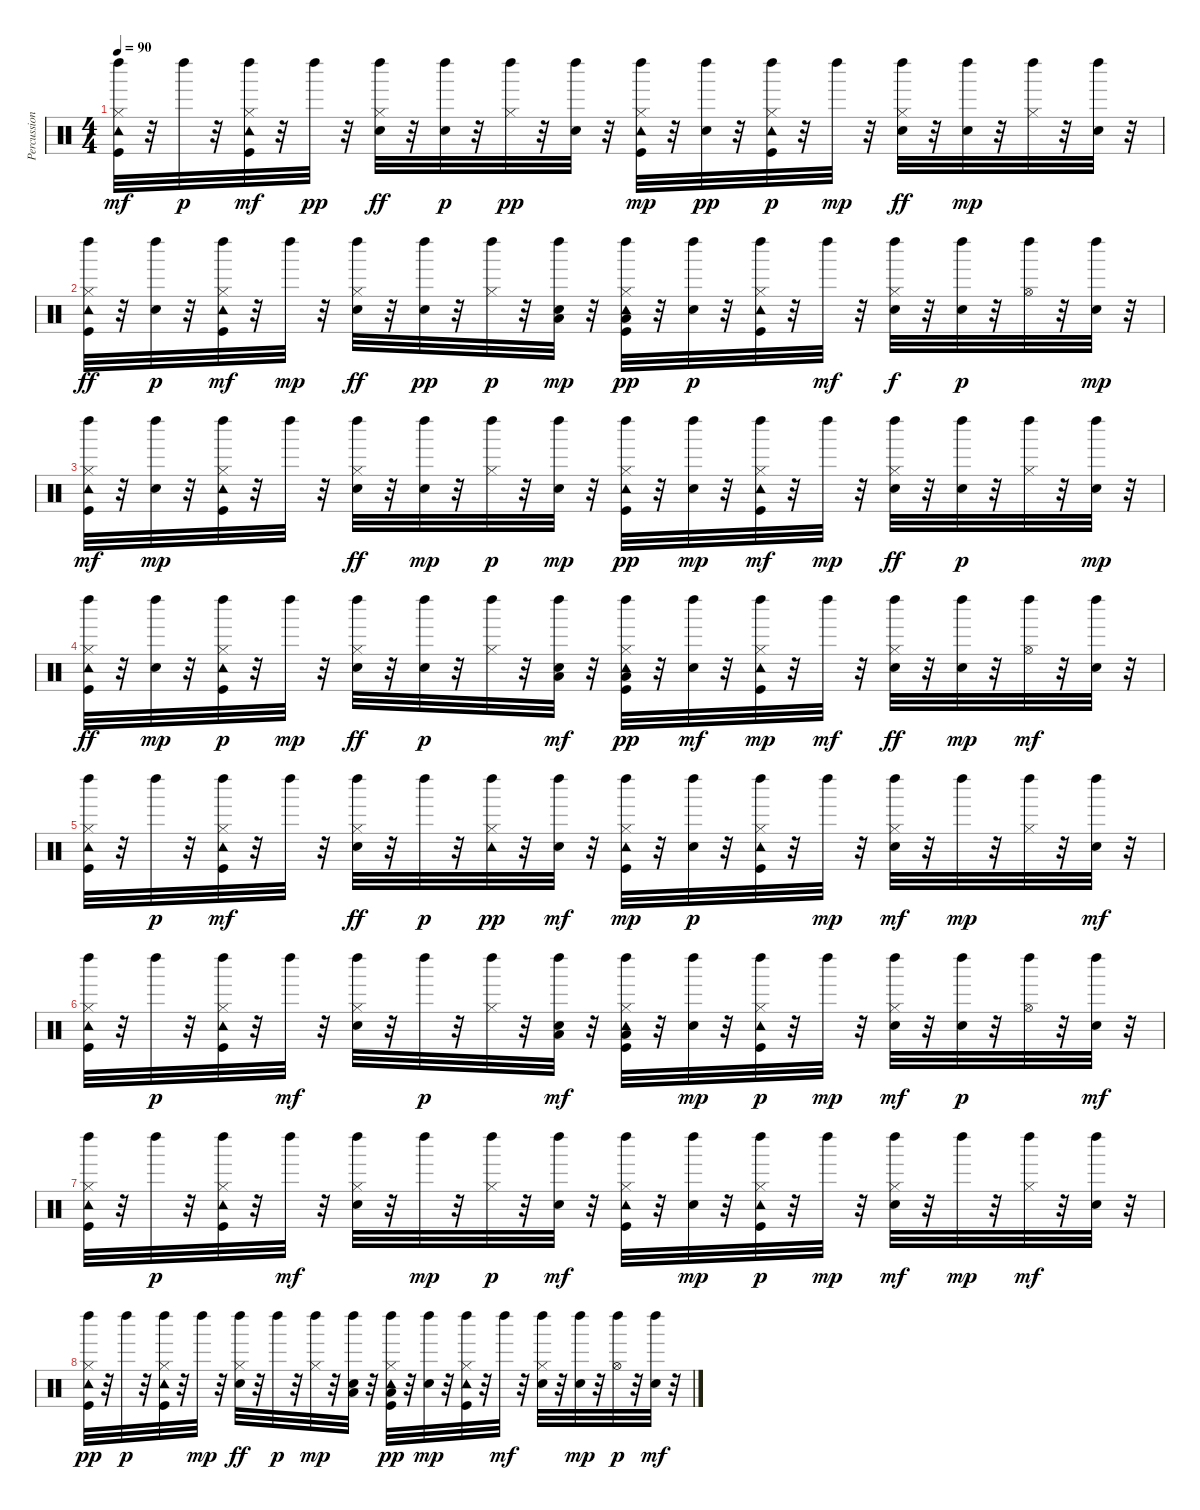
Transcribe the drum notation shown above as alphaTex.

\track ("Percussions" "Percussion") {instrument percussion}
\staff {score}
\articulation defaults
\ts (4 4)
\tempo 90
\clef neutral
\ks c
("Kick (hit)" "Tambourine (hit)" "Left Maraca (hit)" "Hi-Hat (closed)").32{dy mf} r.32 "Left Maraca (hit)".32{dy p} r.32 ("Tambourine (hit)" "Left Maraca (hit)" "Hi-Hat (closed)" "Kick (hit)").32{dy mf} r.32 "Left Maraca (hit)".32{dy pp} r.32 ("Electric Snare (hit)" "Left Maraca (hit)" "Hi-Hat (closed)").32{dy ff} r.32 ("Left Maraca (hit)" "Electric Snare (hit)").32{dy p} r.32 ("Hi-Hat (closed)" "Left Maraca (hit)").32{dy pp} r.32 ("Electric Snare (hit)" "Left Maraca (hit)").32 r.32 ("Tambourine (hit)" "Hi-Hat (closed)" "Kick (hit)" "Left Maraca (hit)").32{dy mp} r.32 ("Electric Snare (hit)" "Left Maraca (hit)").32{dy pp} r.32 ("Hi-Hat (closed)" "Kick (hit)" "Tambourine (hit)" "Left Maraca (hit)").32{dy p} r.32 "Left Maraca (hit)".32{dy mp} r.32 ("Left Maraca (hit)" "Hi-Hat (closed)" "Electric Snare (hit)").32{dy ff} r.32 ("Left Maraca (hit)" "Electric Snare (hit)").32{dy mp} r.32 ("Hi-Hat (closed)" "Left Maraca (hit)").32 r.32 ("Electric Snare (hit)" "Left Maraca (hit)").32 r.32 |
("Tambourine (hit)" "Left Maraca (hit)" "Hi-Hat (closed)" "Kick (hit)").32{dy ff} r.32 ("Electric Snare (hit)" "Left Maraca (hit)").32{dy p} r.32 ("Tambourine (hit)" "Left Maraca (hit)" "Hi-Hat (closed)" "Kick (hit)").32{dy mf} r.32 "Left Maraca (hit)".32{dy mp} r.32 ("Electric Snare (hit)" "Hi-Hat (closed)" "Left Maraca (hit)").32{dy ff} r.32 ("Left Maraca (hit)" "Electric Snare (hit)").32{dy pp} r.32 ("Hi-Hat (closed)" "Left Maraca (hit)").32{dy p} r.32 ("Electric Snare (hit)" "Low Tom (hit)" "Left Maraca (hit)").32{dy mp} r.32 ("Tambourine (hit)" "Low Floor Tom (hit)" "Hi-Hat (closed)" "Kick (hit)" "Left Maraca (hit)").32{dy pp} r.32 ("Electric Snare (hit)" "Left Maraca (hit)").32{dy p} r.32 ("Kick (hit)" "Hi-Hat (closed)" "Tambourine (hit)" "Left Maraca (hit)").32 r.32 "Left Maraca (hit)".32{dy mf} r.32 ("Electric Snare (hit)" "Hi-Hat (closed)" "Left Maraca (hit)").32{dy f} r.32 ("Electric Snare (hit)" "Left Maraca (hit)").32{dy p} r.32 ("Hi-Hat (open)" "Left Maraca (hit)").32 r.32 ("Electric Snare (hit)" "Left Maraca (hit)").32{dy mp} r.32 |
("Tambourine (hit)" "Hi-Hat (closed)" "Kick (hit)" "Left Maraca (hit)").32{dy mf} r.32 ("Electric Snare (hit)" "Left Maraca (hit)").32{dy mp} r.32 ("Tambourine (hit)" "Hi-Hat (closed)" "Kick (hit)" "Left Maraca (hit)").32 r.32 "Left Maraca (hit)".32 r.32 ("Hi-Hat (closed)" "Electric Snare (hit)" "Left Maraca (hit)").32{dy ff} r.32 ("Left Maraca (hit)" "Electric Snare (hit)").32{dy mp} r.32 ("Hi-Hat (closed)" "Left Maraca (hit)").32{dy p} r.32 ("Electric Snare (hit)" "Left Maraca (hit)").32{dy mp} r.32 ("Tambourine (hit)" "Left Maraca (hit)" "Hi-Hat (closed)" "Kick (hit)").32{dy pp} r.32 ("Left Maraca (hit)" "Electric Snare (hit)").32{dy mp} r.32 ("Tambourine (hit)" "Left Maraca (hit)" "Hi-Hat (closed)" "Kick (hit)").32{dy mf} r.32 "Left Maraca (hit)".32{dy mp} r.32 ("Hi-Hat (closed)" "Electric Snare (hit)" "Left Maraca (hit)").32{dy ff} r.32 ("Electric Snare (hit)" "Left Maraca (hit)").32{dy p} r.32 ("Hi-Hat (closed)" "Left Maraca (hit)").32 r.32 ("Electric Snare (hit)" "Left Maraca (hit)").32{dy mp} r.32 |
("Tambourine (hit)" "Left Maraca (hit)" "Hi-Hat (closed)" "Kick (hit)").32{dy ff} r.32 ("Electric Snare (hit)" "Left Maraca (hit)").32{dy mp} r.32 ("Tambourine (hit)" "Hi-Hat (closed)" "Kick (hit)" "Left Maraca (hit)").32{dy p} r.32 "Left Maraca (hit)".32{dy mp} r.32 ("Hi-Hat (closed)" "Electric Snare (hit)" "Left Maraca (hit)").32{dy ff} r.32 ("Electric Snare (hit)" "Left Maraca (hit)").32{dy p} r.32 ("Hi-Hat (closed)" "Left Maraca (hit)").32 r.32 ("Electric Snare (hit)" "Low Tom (hit)" "Left Maraca (hit)").32{dy mf} r.32 ("Low Floor Tom (hit)" "Hi-Hat (closed)" "Kick (hit)" "Tambourine (hit)" "Left Maraca (hit)").32{dy pp} r.32 ("Left Maraca (hit)" "Electric Snare (hit)").32{dy mf} r.32 ("Tambourine (hit)" "Hi-Hat (closed)" "Kick (hit)" "Left Maraca (hit)").32{dy mp} r.32 "Left Maraca (hit)".32{dy mf} r.32 ("Electric Snare (hit)" "Hi-Hat (closed)" "Left Maraca (hit)").32{dy ff} r.32 ("Electric Snare (hit)" "Left Maraca (hit)").32{dy mp} r.32 ("Hi-Hat (open)" "Left Maraca (hit)").32{dy mf} r.32 ("Electric Snare (hit)" "Left Maraca (hit)").32 r.32 |
("Kick (hit)" "Tambourine (hit)" "Left Maraca (hit)" "Hi-Hat (closed)").32 r.32 "Left Maraca (hit)".32{dy p} r.32 ("Kick (hit)" "Tambourine (hit)" "Left Maraca (hit)" "Hi-Hat (closed)").32{dy mf} r.32 "Left Maraca (hit)".32 r.32 ("Left Maraca (hit)" "Hi-Hat (closed)" "Electric Snare (hit)").32{dy ff} r.32 "Left Maraca (hit)".32{dy p} r.32 ("Tambourine (hit)" "Hi-Hat (closed)" "Left Maraca (hit)").32{dy pp} r.32 ("Left Maraca (hit)" "Electric Snare (hit)").32{dy mf} r.32 ("Hi-Hat (closed)" "Tambourine (hit)" "Kick (hit)" "Left Maraca (hit)").32{dy mp} r.32 ("Electric Snare (hit)" "Left Maraca (hit)").32{dy p} r.32 ("Hi-Hat (closed)" "Kick (hit)" "Tambourine (hit)" "Left Maraca (hit)").32 r.32 "Left Maraca (hit)".32{dy mp} r.32 ("Electric Snare (hit)" "Hi-Hat (closed)" "Left Maraca (hit)").32{dy mf} r.32 "Left Maraca (hit)".32{dy mp} r.32 ("Left Maraca (hit)" "Hi-Hat (closed)").32 r.32 ("Electric Snare (hit)" "Left Maraca (hit)").32{dy mf} r.32 |
("Kick (hit)" "Hi-Hat (closed)" "Tambourine (hit)" "Left Maraca (hit)").32 r.32 "Left Maraca (hit)".32{dy p} r.32 ("Kick (hit)" "Hi-Hat (closed)" "Tambourine (hit)" "Left Maraca (hit)").32 r.32 "Left Maraca (hit)".32{dy mf} r.32 ("Electric Snare (hit)" "Hi-Hat (closed)" "Left Maraca (hit)").32 r.32 "Left Maraca (hit)".32{dy p} r.32 ("Hi-Hat (closed)" "Left Maraca (hit)").32 r.32 ("Left Maraca (hit)" "Electric Snare (hit)" "Low Tom (hit)").32{dy mf} r.32 ("Kick (hit)" "Tambourine (hit)" "Left Maraca (hit)" "Hi-Hat (closed)" "Low Floor Tom (hit)").32 r.32 ("Electric Snare (hit)" "Left Maraca (hit)").32{dy mp} r.32 ("Kick (hit)" "Hi-Hat (closed)" "Tambourine (hit)" "Left Maraca (hit)").32{dy p} r.32 "Left Maraca (hit)".32{dy mp} r.32 ("Electric Snare (hit)" "Hi-Hat (closed)" "Left Maraca (hit)").32{dy mf} r.32 ("Left Maraca (hit)" "Electric Snare (hit)").32{dy p} r.32 ("Hi-Hat (open)" "Left Maraca (hit)").32 r.32 ("Electric Snare (hit)" "Left Maraca (hit)").32{dy mf} r.32 |
("Hi-Hat (closed)" "Kick (hit)" "Tambourine (hit)" "Left Maraca (hit)").32 r.32 "Left Maraca (hit)".32{dy p} r.32 ("Hi-Hat (closed)" "Tambourine (hit)" "Kick (hit)" "Left Maraca (hit)").32 r.32 "Left Maraca (hit)".32{dy mf} r.32 ("Electric Snare (hit)" "Left Maraca (hit)" "Hi-Hat (closed)").32 r.32 "Left Maraca (hit)".32{dy mp} r.32 ("Hi-Hat (closed)" "Left Maraca (hit)").32{dy p} r.32 ("Electric Snare (hit)" "Left Maraca (hit)").32{dy mf} r.32 ("Kick (hit)" "Tambourine (hit)" "Left Maraca (hit)" "Hi-Hat (closed)").32 r.32 ("Electric Snare (hit)" "Left Maraca (hit)").32{dy mp} r.32 ("Kick (hit)" "Left Maraca (hit)" "Hi-Hat (closed)" "Tambourine (hit)").32{dy p} r.32 "Left Maraca (hit)".32{dy mp} r.32 ("Electric Snare (hit)" "Left Maraca (hit)" "Hi-Hat (closed)").32{dy mf} r.32 "Left Maraca (hit)".32{dy mp} r.32 ("Left Maraca (hit)" "Hi-Hat (closed)").32{dy mf} r.32 ("Electric Snare (hit)" "Left Maraca (hit)").32 r.32 |
("Kick (hit)" "Left Maraca (hit)" "Hi-Hat (closed)" "Tambourine (hit)").32{dy pp} r.32 "Left Maraca (hit)".32{dy p} r.32 ("Kick (hit)" "Tambourine (hit)" "Hi-Hat (closed)" "Left Maraca (hit)").32 r.32 "Left Maraca (hit)".32{dy mp} r.32 ("Electric Snare (hit)" "Left Maraca (hit)" "Hi-Hat (closed)").32{dy ff} r.32 "Left Maraca (hit)".32{dy p} r.32 ("Left Maraca (hit)" "Hi-Hat (closed)").32{dy mp} r.32 ("Electric Snare (hit)" "Left Maraca (hit)" "Low Tom (hit)").32 r.32 ("Left Maraca (hit)" "Kick (hit)" "Hi-Hat (closed)" "Low Floor Tom (hit)" "Tambourine (hit)").32{dy pp} r.32 ("Electric Snare (hit)" "Left Maraca (hit)").32{dy mp} r.32 ("Kick (hit)" "Hi-Hat (closed)" "Tambourine (hit)" "Left Maraca (hit)").32 r.32 "Left Maraca (hit)".32{dy mf} r.32 ("Electric Snare (hit)" "Left Maraca (hit)" "Hi-Hat (closed)").32 r.32 ("Electric Snare (hit)" "Left Maraca (hit)").32{dy mp} r.32 ("Hi-Hat (open)" "Left Maraca (hit)").32{dy p} r.32 ("Left Maraca (hit)" "Electric Snare (hit)").32{dy mf} r.32
